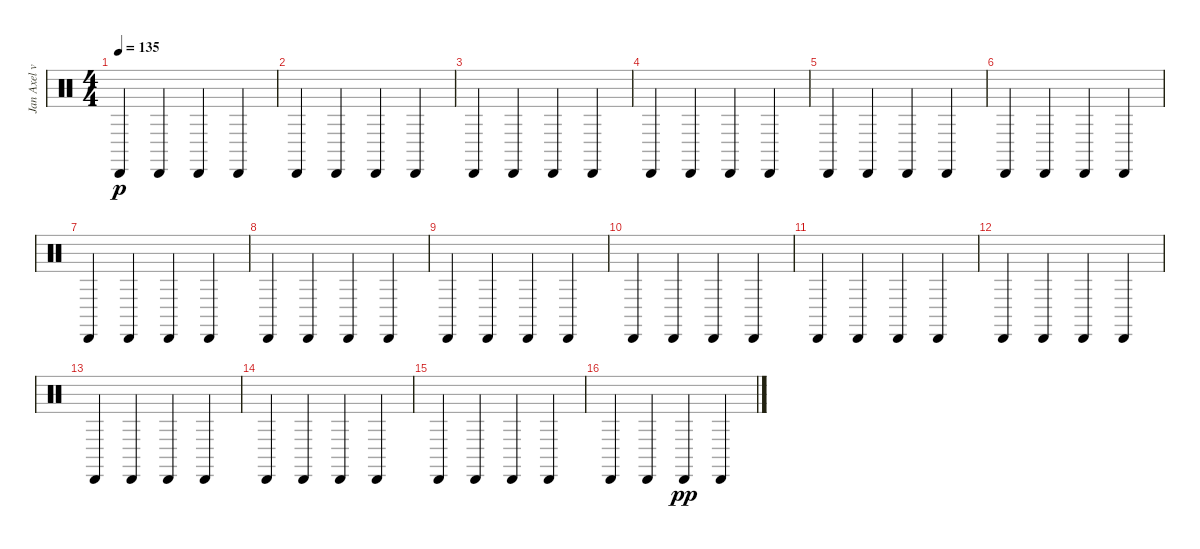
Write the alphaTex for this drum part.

\track ("Jan Axel von Bloomberg : Drums" "Jan Axel v") {instrument percussion}
\staff {score}
\articulation defaults
\ts (4 4)
\tempo 135
\clef neutral
\ks c "Cabasa (hit)".4{dy p balance 0} "Cabasa (hit)".4{balance 16} "Cabasa (hit)".4{balance 0} "Cabasa (hit)".4{balance 16}
|
"Cabasa (hit)".4{balance 0} "Cabasa (hit)".4{balance 16} "Cabasa (hit)".4{balance 0} "Cabasa (hit)".4{balance 16} |
"Cabasa (hit)".4{balance 0} "Cabasa (hit)".4{balance 16} "Cabasa (hit)".4{balance 0} "Cabasa (hit)".4{balance 16} |
"Cabasa (hit)".4{balance 0} "Cabasa (hit)".4{balance 16} "Cabasa (hit)".4{balance 0} "Cabasa (hit)".4{balance 16} |
"Cabasa (hit)".4{balance 0} "Cabasa (hit)".4{balance 16} "Cabasa (hit)".4{balance 0} "Cabasa (hit)".4{balance 16} |
"Cabasa (hit)".4{balance 0} "Cabasa (hit)".4{balance 16} "Cabasa (hit)".4{balance 0} "Cabasa (hit)".4{balance 16} |
"Cabasa (hit)".4{balance 0} "Cabasa (hit)".4{balance 16} "Cabasa (hit)".4{balance 0} "Cabasa (hit)".4{balance 16} |
"Cabasa (hit)".4{balance 0} "Cabasa (hit)".4{balance 16} "Cabasa (hit)".4{balance 0} "Cabasa (hit)".4{balance 16} |
"Cabasa (hit)".4{balance 0} "Cabasa (hit)".4{balance 16} "Cabasa (hit)".4{balance 0} "Cabasa (hit)".4{balance 16} |
"Cabasa (hit)".4{balance 0} "Cabasa (hit)".4{balance 16} "Cabasa (hit)".4{balance 0} "Cabasa (hit)".4{balance 16} |
"Cabasa (hit)".4{balance 0} "Cabasa (hit)".4{balance 16} "Cabasa (hit)".4{balance 0} "Cabasa (hit)".4{balance 16} |
"Cabasa (hit)".4{balance 0} "Cabasa (hit)".4{balance 16} "Cabasa (hit)".4{balance 0} "Cabasa (hit)".4{balance 16} |
"Cabasa (hit)".4{balance 0} "Cabasa (hit)".4{balance 16} "Cabasa (hit)".4{balance 0} "Cabasa (hit)".4{balance 16} |
"Cabasa (hit)".4{balance 0} "Cabasa (hit)".4{balance 16} "Cabasa (hit)".4{balance 0} "Cabasa (hit)".4{balance 16} |
"Cabasa (hit)".4{balance 0} "Cabasa (hit)".4{balance 16} "Cabasa (hit)".4{balance 0} "Cabasa (hit)".4{balance 16} |
"Cabasa (hit)".4{balance 0} "Cabasa (hit)".4{balance 16} "Cabasa (hit)".4{dy pp balance 0} "Cabasa (hit)".4{balance 16}
